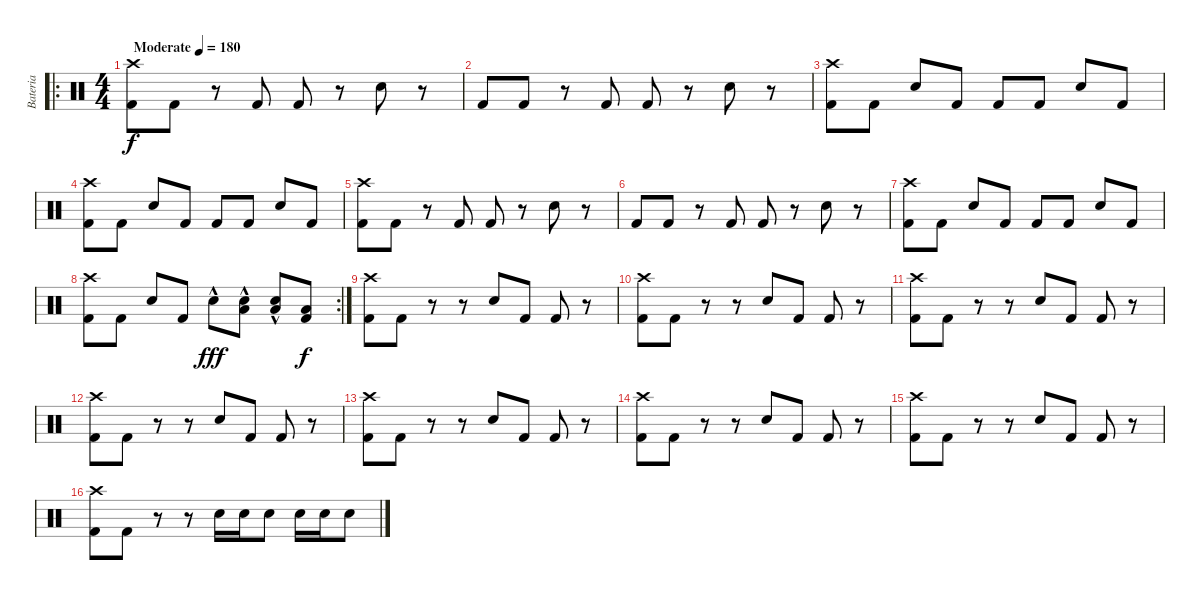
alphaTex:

\track ("Bateria" "Bateria") {instrument percussion}
\staff {score}
\articulation defaults
\ro
\ts (4 4)
\tempo (180 "Moderate")
\clef neutral
\ks c
("Kick (hit) 2" "Crash high (hit)").8{dy f} "Kick (hit) 2".8 r.8 "Kick (hit) 2".8 "Kick (hit) 2".8 r.8 "Electric Snare (hit)".8 r.8 |
"Kick (hit) 2".8 "Kick (hit) 2".8 r.8 "Kick (hit) 2".8 "Kick (hit) 2".8 r.8 "Electric Snare (hit)".8 r.8 |
("Kick (hit) 2" "Crash high (hit)").8 "Kick (hit) 2".8 "Electric Snare (hit)".8 "Kick (hit) 2".8 "Kick (hit) 2".8 "Kick (hit) 2".8 "Electric Snare (hit)".8 "Kick (hit) 2".8 |
("Kick (hit) 2" "Crash high (hit)").8 "Kick (hit) 2".8 "Electric Snare (hit)".8 "Kick (hit) 2".8 "Kick (hit) 2".8 "Kick (hit) 2".8 "Electric Snare (hit)".8 "Kick (hit) 2".8 |
("Kick (hit) 2" "Crash high (hit)").8 "Kick (hit) 2".8 r.8 "Kick (hit) 2".8 "Kick (hit) 2".8 r.8 "Electric Snare (hit)".8 r.8 |
"Kick (hit) 2".8 "Kick (hit) 2".8 r.8 "Kick (hit) 2".8 "Kick (hit) 2".8 r.8 "Electric Snare (hit)".8 r.8 |
("Kick (hit) 2" "Crash high (hit)").8 "Kick (hit) 2".8 "Electric Snare (hit)".8 "Kick (hit) 2".8 "Kick (hit) 2".8 "Kick (hit) 2".8 "Electric Snare (hit)".8 "Kick (hit) 2".8 |
\rc 2
("Kick (hit) 2" "Crash high (hit)").8 "Kick (hit) 2".8 "Electric Snare (hit)".8 "Kick (hit) 2".8 "Snare (hit) 2"{hac}.8{dy fff} ("Snare (hit) 2" "Low Tom (hit)"{hac}).8 ("Snare (hit) 2" "Low Tom (hit)"{hac}).8 ("Kick (hit) 2" "Low Tom (hit)").8{dy f} |
("Kick (hit) 2" "Crash high (hit)").8 "Kick (hit) 2".8 r.8 r.8 "Electric Snare (hit)".8 "Kick (hit) 2".8 "Kick (hit) 2".8 r.8 |
("Kick (hit) 2" "Crash high (hit)").8 "Kick (hit) 2".8 r.8 r.8 "Electric Snare (hit)".8 "Kick (hit) 2".8 "Kick (hit) 2".8 r.8 |
("Kick (hit) 2" "Crash high (hit)").8 "Kick (hit) 2".8 r.8 r.8 "Electric Snare (hit)".8 "Kick (hit) 2".8 "Kick (hit) 2".8 r.8 |
("Kick (hit) 2" "Crash high (hit)").8 "Kick (hit) 2".8 r.8 r.8 "Electric Snare (hit)".8 "Kick (hit) 2".8 "Kick (hit) 2".8 r.8 |
("Kick (hit) 2" "Crash high (hit)").8 "Kick (hit) 2".8 r.8 r.8 "Electric Snare (hit)".8 "Kick (hit) 2".8 "Kick (hit) 2".8 r.8 |
("Kick (hit) 2" "Crash high (hit)").8 "Kick (hit) 2".8 r.8 r.8 "Electric Snare (hit)".8 "Kick (hit) 2".8 "Kick (hit) 2".8 r.8 |
("Kick (hit) 2" "Crash high (hit)").8 "Kick (hit) 2".8 r.8 r.8 "Electric Snare (hit)".8 "Kick (hit) 2".8 "Kick (hit) 2".8 r.8 |
("Kick (hit) 2" "Crash high (hit)").8 "Kick (hit) 2".8 r.8 r.8 "Electric Snare (hit)".16 "Electric Snare (hit)".16 "Electric Snare (hit)".8 "Electric Snare (hit)".16 "Electric Snare (hit)".16 "Electric Snare (hit)".8
